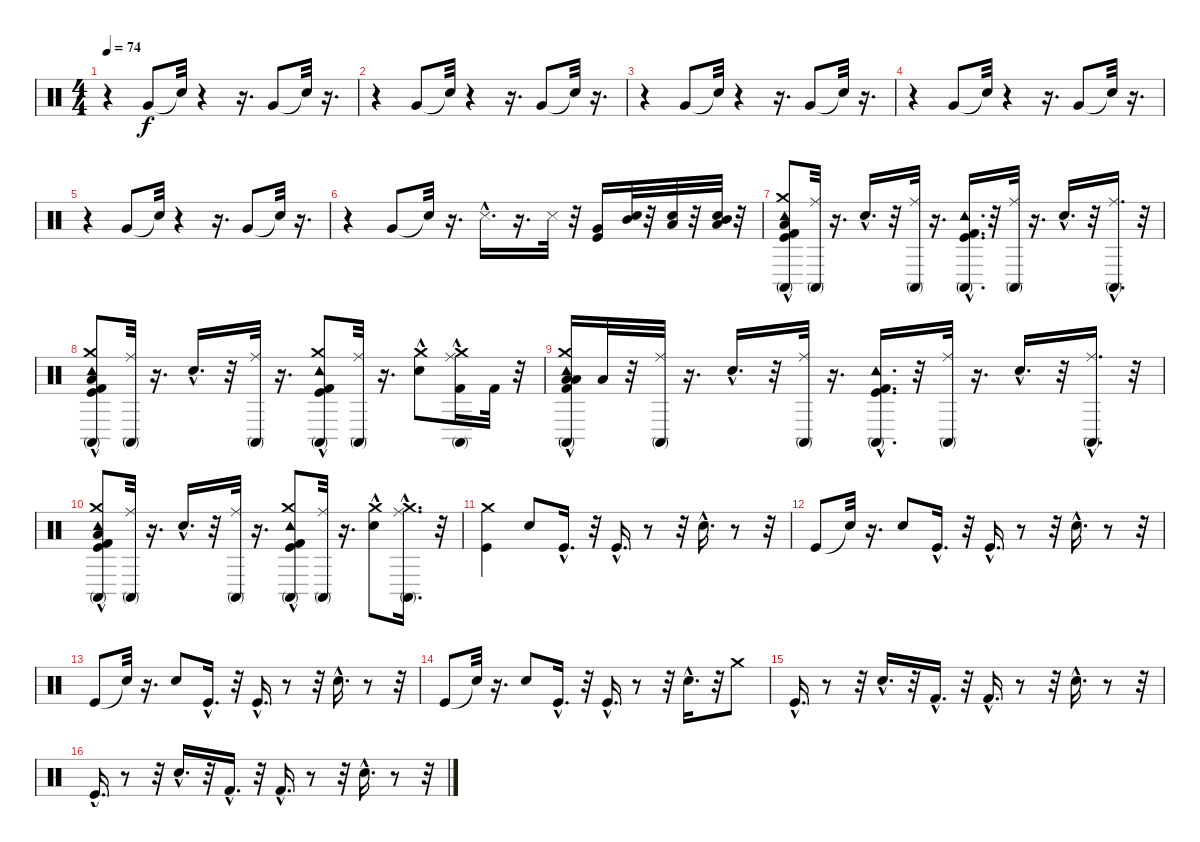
\track "" {instrument percussion}
\staff {score}
\articulation defaults
\ts (4 4)
\tempo 74
\clef neutral
\ks c
r.4{dy f} "Very Low Tom (hit)".8 "Snare (hit)"{t}.32 r.4 r.16{d} "Very Low Tom (hit)".8 "Snare (hit)"{t}.32 r.16{d} |
r.4 "Very Low Tom (hit)".8 "Snare (hit)"{t}.32 r.4 r.16{d} "Very Low Tom (hit)".8 "Snare (hit)"{t}.32 r.16{d} |
r.4 "Very Low Tom (hit)".8 "Snare (hit)"{t}.32 r.4 r.16{d} "Very Low Tom (hit)".8 "Snare (hit)"{t}.32 r.16{d} |
r.4 "Very Low Tom (hit)".8 "Snare (hit)"{t}.32 r.4 r.16{d} "Very Low Tom (hit)".8 "Snare (hit)"{t}.32 r.16{d} |
r.4 "Very Low Tom (hit)".8 "Snare (hit)"{t}.32 r.4 r.16{d} "Very Low Tom (hit)".8 "Snare (hit)"{t}.32 r.16{d} |
r.4 "Very Low Tom (hit)".8 "Snare (hit)"{t}.32 r.16{d} "Metronome (hit)"{hac}.16{d} r.16{d} "Metronome (hit)".32 r.32 ("Kick (hit)" "Very Low Tom (hit)").16 ("Mid Tom (hit)" "Snare (hit) 2").32 r.32 ("Low Floor Tom (hit)" "Snare (hit) 2").32 r.32 ("Mid Tom (hit)" "Low Floor Tom (hit)" "Snare (hit) 2").32 r.32 |
("Crash medium (hit)" "Low Floor Tom (hit)" "Conga high (mute)" "Tambourine (hit)"{hac} "Kick (hit) 2"{hac} "Kick (hit)"{hac}).8 ("Conga high (mute)" "Ride (middle)").32 r.16{d} "Snare (hit) 2"{hac}.16{d} r.32 ("Conga high (mute)" "Ride (middle)").32 r.16{d} ("Conga high (mute)" "Tambourine (hit)"{hac} "Kick (hit) 2"{hac} "Kick (hit)"{hac}).16{d} r.32 ("Conga high (mute)" "Ride (middle)").32 r.16{d} "Snare (hit) 2"{hac}.16{d} r.32 ("Conga high (mute)"{hac} "Ride (middle)").16{d} r.32 |
("Crash medium (hit)" "Low Floor Tom (hit)" "Conga high (mute)" "Tambourine (hit)"{hac} "Kick (hit) 2"{hac} "Kick (hit)"{hac}).8 ("Conga high (mute)" "Ride (middle)").32 r.16{d} "Snare (hit) 2"{hac}.16{d} r.32 ("Conga high (mute)" "Ride (middle)").32 r.16{d} ("Crash medium (hit)" "Conga high (mute)" "Tambourine (hit)"{hac} "Kick (hit) 2"{hac} "Kick (hit)").8 ("Conga high (mute)" "Ride (middle)").32 r.16{d} ("Crash medium (hit)" "Snare (hit) 2"{hac}).8 ("Crash medium (hit)" "Kick (hit) 2" "Conga high (mute)"{hac} "Ride (middle)").16 "Kick (hit) 2".32 r.32 |
("Low Tom (hit)" "Crash medium (hit)" "Low Floor Tom (hit)" "Conga high (mute)" "Tambourine (hit)"{hac} "Kick (hit) 2"{hac}).16 "Low Floor Tom (hit)".32 r.32 ("Conga high (mute)" "Ride (middle)").32 r.16{d} "Snare (hit) 2"{hac}.16{d} r.32 ("Conga high (mute)" "Ride (middle)").32 r.16{d} ("Conga high (mute)" "Tambourine (hit)"{hac} "Kick (hit) 2"{hac} "Kick (hit)"{hac}).16{d} r.32 ("Conga high (mute)" "Ride (middle)").32 r.16{d} "Snare (hit) 2"{hac}.16{d} r.32 ("Conga high (mute)"{hac} "Ride (middle)").16{d} r.32 |
("Crash medium (hit)" "Low Floor Tom (hit)" "Conga high (mute)" "Tambourine (hit)"{hac} "Kick (hit) 2"{hac} "Kick (hit)"{hac}).8 ("Conga high (mute)" "Ride (middle)").32 r.16{d} "Snare (hit) 2"{hac}.16{d} r.32 ("Conga high (mute)" "Ride (middle)").32 r.16{d} ("Crash medium (hit)" "Conga high (mute)" "Tambourine (hit)"{hac} "Kick (hit) 2"{hac} "Kick (hit)"{hac}).8 ("Conga high (mute)" "Ride (middle)").32 r.16{d} ("Crash medium (hit)" "Snare (hit) 2"{hac}).8 ("Crash medium (hit)" "Conga high (mute)"{hac} "Ride (middle)").16{d} r.32 |
("Kick (hit)" "Crash medium (hit)").4 "Electric Snare (hit)".8 "Kick (hit)"{hac}.16{d} r.32 "Kick (hit)"{hac}.16{d} r.8 r.32 "Electric Snare (hit)"{hac}.16{d} r.8 r.32 |
"Kick (hit)".8 "Snare (hit)"{t}.32 r.16{d} "Electric Snare (hit)".8 "Kick (hit)"{hac}.16{d} r.32 "Kick (hit)"{hac}.16{d} r.8 r.32 "Electric Snare (hit)"{hac}.16{d} r.8 r.32 |
"Kick (hit)".8 "Snare (hit)"{t}.32 r.16{d} "Electric Snare (hit)".8 "Kick (hit)"{hac}.16{d} r.32 "Kick (hit)"{hac}.16{d} r.8 r.32 "Electric Snare (hit)"{hac}.16{d} r.8 r.32 |
"Kick (hit)".8 "Snare (hit)"{t}.32 r.16{d} "Electric Snare (hit)".8 "Kick (hit)"{hac}.16{d} r.32 "Kick (hit)"{hac}.16{d} r.8 r.32 "Electric Snare (hit)"{hac}.16{d} r.32 "Crash medium (hit)".8 |
"Kick (hit)"{hac}.16{d} r.8 r.32 "Electric Snare (hit)"{hac}.16{d} r.32 "Kick (hit) 2"{hac}.16{d} r.32 "Kick (hit) 2"{hac}.16{d} r.8 r.32 "Electric Snare (hit)"{hac}.16{d} r.8 r.32 |
"Kick (hit)"{hac}.16{d} r.8 r.32 "Electric Snare (hit)"{hac}.16{d} r.32 "Kick (hit) 2"{hac}.16{d} r.32 "Kick (hit) 2"{hac}.16{d} r.8 r.32 "Electric Snare (hit)"{hac}.16{d} r.8 r.32
